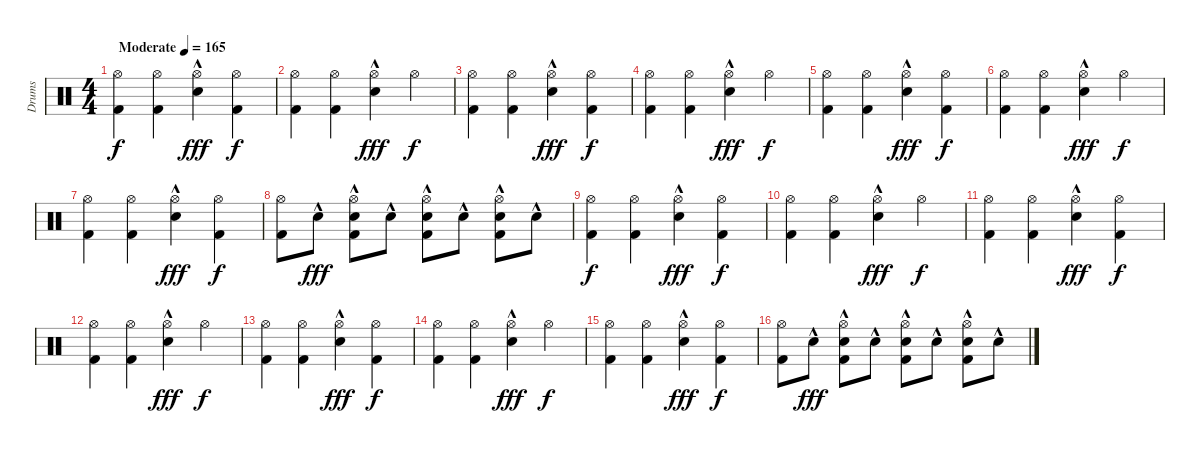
\track ("Drums" "Drums") {instrument percussion}
\staff {score}
\articulation defaults
\ts (4 4)
\tempo (165 "Moderate")
\clef neutral
\ks c
("Hi-Hat (open)" "Kick (hit) 2").4{dy f} ("Hi-Hat (open)" "Kick (hit) 2").4 ("Hi-Hat (open)" "Electric Snare (hit)"{hac}).4{dy fff} ("Hi-Hat (open)" "Kick (hit) 2").4{dy f} |
("Hi-Hat (open)" "Kick (hit) 2").4 ("Hi-Hat (open)" "Kick (hit) 2").4 ("Hi-Hat (open)" "Electric Snare (hit)"{hac}).4{dy fff} "Hi-Hat (open)".4{dy f} |
("Hi-Hat (open)" "Kick (hit) 2").4 ("Hi-Hat (open)" "Kick (hit) 2").4 ("Hi-Hat (open)" "Electric Snare (hit)"{hac}).4{dy fff} ("Hi-Hat (open)" "Kick (hit) 2").4{dy f} |
("Hi-Hat (open)" "Kick (hit) 2").4 ("Hi-Hat (open)" "Kick (hit) 2").4 ("Hi-Hat (open)" "Electric Snare (hit)"{hac}).4{dy fff} "Hi-Hat (open)".4{dy f} |
("Hi-Hat (open)" "Kick (hit) 2").4 ("Hi-Hat (open)" "Kick (hit) 2").4 ("Hi-Hat (open)" "Electric Snare (hit)"{hac}).4{dy fff} ("Hi-Hat (open)" "Kick (hit) 2").4{dy f} |
("Hi-Hat (open)" "Kick (hit) 2").4 ("Hi-Hat (open)" "Kick (hit) 2").4 ("Hi-Hat (open)" "Electric Snare (hit)"{hac}).4{dy fff} "Hi-Hat (open)".4{dy f} |
("Hi-Hat (open)" "Kick (hit) 2").4 ("Hi-Hat (open)" "Kick (hit) 2").4 ("Hi-Hat (open)" "Electric Snare (hit)"{hac}).4{dy fff} ("Hi-Hat (open)" "Kick (hit) 2").4{dy f} |
("Hi-Hat (open)" "Kick (hit) 2").8 "Electric Snare (hit)"{hac}.8{dy fff} ("Hi-Hat (open)" "Electric Snare (hit)"{hac} "Kick (hit) 2").8 "Electric Snare (hit)"{hac}.8 ("Hi-Hat (open)" "Electric Snare (hit)"{hac} "Kick (hit) 2").8 "Electric Snare (hit)"{hac}.8 ("Hi-Hat (open)" "Electric Snare (hit)"{hac} "Kick (hit) 2").8 "Electric Snare (hit)"{hac}.8 |
("Hi-Hat (open)" "Kick (hit) 2").4{dy f} ("Hi-Hat (open)" "Kick (hit) 2").4 ("Hi-Hat (open)" "Electric Snare (hit)"{hac}).4{dy fff} ("Hi-Hat (open)" "Kick (hit) 2").4{dy f} |
("Hi-Hat (open)" "Kick (hit) 2").4 ("Hi-Hat (open)" "Kick (hit) 2").4 ("Hi-Hat (open)" "Electric Snare (hit)"{hac}).4{dy fff} "Hi-Hat (open)".4{dy f} |
("Hi-Hat (open)" "Kick (hit) 2").4 ("Hi-Hat (open)" "Kick (hit) 2").4 ("Hi-Hat (open)" "Electric Snare (hit)"{hac}).4{dy fff} ("Hi-Hat (open)" "Kick (hit) 2").4{dy f} |
("Hi-Hat (open)" "Kick (hit) 2").4 ("Hi-Hat (open)" "Kick (hit) 2").4 ("Hi-Hat (open)" "Electric Snare (hit)"{hac}).4{dy fff} "Hi-Hat (open)".4{dy f} |
("Hi-Hat (open)" "Kick (hit) 2").4 ("Hi-Hat (open)" "Kick (hit) 2").4 ("Hi-Hat (open)" "Electric Snare (hit)"{hac}).4{dy fff} ("Hi-Hat (open)" "Kick (hit) 2").4{dy f} |
("Hi-Hat (open)" "Kick (hit) 2").4 ("Hi-Hat (open)" "Kick (hit) 2").4 ("Hi-Hat (open)" "Electric Snare (hit)"{hac}).4{dy fff} "Hi-Hat (open)".4{dy f} |
("Hi-Hat (open)" "Kick (hit) 2").4 ("Hi-Hat (open)" "Kick (hit) 2").4 ("Hi-Hat (open)" "Electric Snare (hit)"{hac}).4{dy fff} ("Hi-Hat (open)" "Kick (hit) 2").4{dy f} |
("Hi-Hat (open)" "Kick (hit) 2").8 "Electric Snare (hit)"{hac}.8{dy fff} ("Hi-Hat (open)" "Electric Snare (hit)"{hac} "Kick (hit) 2").8 "Electric Snare (hit)"{hac}.8 ("Hi-Hat (open)" "Electric Snare (hit)"{hac} "Kick (hit) 2").8 "Electric Snare (hit)"{hac}.8 ("Hi-Hat (open)" "Electric Snare (hit)"{hac} "Kick (hit) 2").8 "Electric Snare (hit)"{hac}.8
